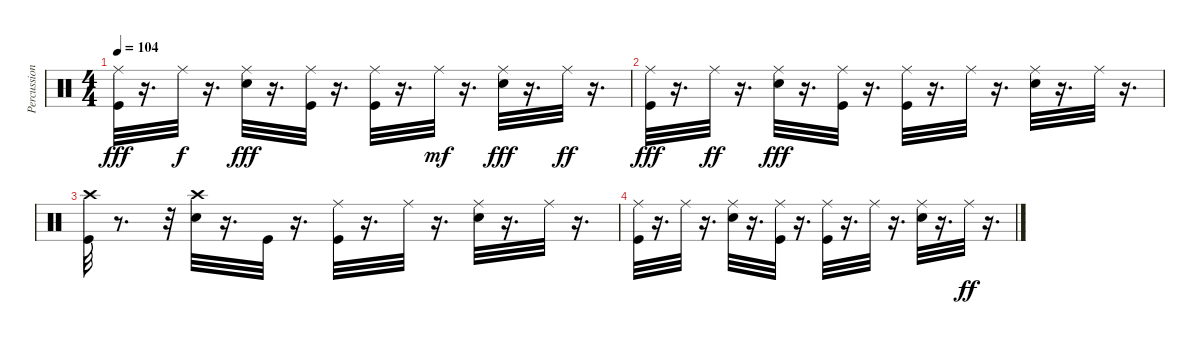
\track ("Percussion" "Percussion") {instrument percussion}
\staff {score}
\articulation defaults
\ts (4 4)
\tempo 104
\clef neutral
\ks c
("Ride (middle)" "Kick (hit)").32{dy fff} r.16{d} "Ride (middle)".32{dy f} r.16{d} ("Ride (middle)" "Snare (hit) 2").32{dy fff} r.16{d} ("Ride (middle)" "Kick (hit)").32 r.16{d} ("Ride (middle)" "Kick (hit)").32 r.16{d} "Ride (middle)".32{dy mf} r.16{d} ("Ride (middle)" "Snare (hit) 2").32{dy fff} r.16{d} "Ride (middle)".32{dy ff} r.16{d} |
("Ride (middle)" "Kick (hit)").32{dy fff} r.16{d} "Ride (middle)".32{dy ff} r.16{d} ("Ride (middle)" "Snare (hit) 2").32{dy fff} r.16{d} ("Ride (middle)" "Kick (hit)").32 r.16{d} ("Ride (middle)" "Kick (hit)").32 r.16{d} "Ride (middle)".32 r.16{d} ("Ride (middle)" "Snare (hit) 2").32 r.16{d} "Ride (middle)".32 r.16{d} |
("Crash high (hit)" "Kick (hit)").32 r.8{d} r.32 ("Crash high (hit)" "Snare (hit) 2").32 r.16{d} "Kick (hit)".32 r.16{d} ("Ride (middle)" "Kick (hit)").32 r.16{d} "Ride (middle)".32 r.16{d} ("Ride (middle)" "Snare (hit) 2").32 r.16{d} "Ride (middle)".32 r.16{d} |
("Ride (middle)" "Kick (hit)").32 r.16{d} "Ride (middle)".32 r.16{d} ("Ride (middle)" "Snare (hit) 2").32 r.16{d} ("Ride (middle)" "Kick (hit)").32 r.16{d} ("Ride (middle)" "Kick (hit)").32 r.16{d} "Ride (middle)".32 r.16{d} ("Ride (middle)" "Snare (hit) 2").32 r.16{d} "Ride (middle)".32{dy ff} r.16{d}
